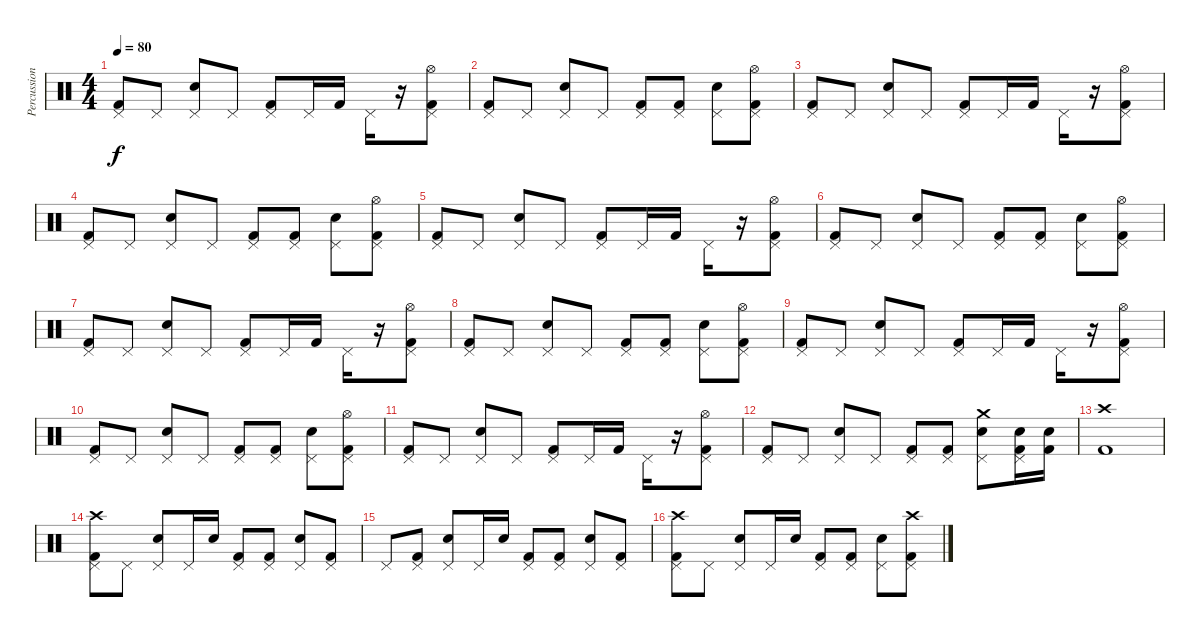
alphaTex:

\track ("Percussion" "Percussion") {instrument percussion}
\staff {score}
\articulation defaults
\ts (4 4)
\tempo 80
\clef neutral
\ks c
("Pedal Hi-Hat (hit)" "Kick (hit) 2").8{dy f} "Pedal Hi-Hat (hit)".8 ("Pedal Hi-Hat (hit)" "Electric Snare (hit)").8 "Pedal Hi-Hat (hit)".8 ("Pedal Hi-Hat (hit)" "Kick (hit) 2").8 "Pedal Hi-Hat (hit)".16 "Kick (hit) 2".16 "Pedal Hi-Hat (hit)".16 r.16 ("Pedal Hi-Hat (hit)" "Hi-Hat (open)" "Kick (hit) 2").8 |
("Pedal Hi-Hat (hit)" "Kick (hit) 2").8 "Pedal Hi-Hat (hit)".8 ("Pedal Hi-Hat (hit)" "Electric Snare (hit)").8 "Pedal Hi-Hat (hit)".8 ("Pedal Hi-Hat (hit)" "Kick (hit) 2").8 ("Pedal Hi-Hat (hit)" "Kick (hit) 2").8 ("Pedal Hi-Hat (hit)" "Electric Snare (hit)").8 ("Pedal Hi-Hat (hit)" "Hi-Hat (open)" "Kick (hit) 2").8 |
("Pedal Hi-Hat (hit)" "Kick (hit) 2").8 "Pedal Hi-Hat (hit)".8 ("Pedal Hi-Hat (hit)" "Electric Snare (hit)").8 "Pedal Hi-Hat (hit)".8 ("Pedal Hi-Hat (hit)" "Kick (hit) 2").8 "Pedal Hi-Hat (hit)".16 "Kick (hit) 2".16 "Pedal Hi-Hat (hit)".16 r.16 ("Pedal Hi-Hat (hit)" "Hi-Hat (open)" "Kick (hit) 2").8 |
("Pedal Hi-Hat (hit)" "Kick (hit) 2").8 "Pedal Hi-Hat (hit)".8 ("Pedal Hi-Hat (hit)" "Electric Snare (hit)").8 "Pedal Hi-Hat (hit)".8 ("Pedal Hi-Hat (hit)" "Kick (hit) 2").8 ("Pedal Hi-Hat (hit)" "Kick (hit) 2").8 ("Pedal Hi-Hat (hit)" "Electric Snare (hit)").8 ("Pedal Hi-Hat (hit)" "Hi-Hat (open)" "Kick (hit) 2").8 |
("Pedal Hi-Hat (hit)" "Kick (hit) 2").8 "Pedal Hi-Hat (hit)".8 ("Pedal Hi-Hat (hit)" "Electric Snare (hit)").8 "Pedal Hi-Hat (hit)".8 ("Pedal Hi-Hat (hit)" "Kick (hit) 2").8 "Pedal Hi-Hat (hit)".16 "Kick (hit) 2".16 "Pedal Hi-Hat (hit)".16 r.16 ("Pedal Hi-Hat (hit)" "Hi-Hat (open)" "Kick (hit) 2").8 |
("Pedal Hi-Hat (hit)" "Kick (hit) 2").8 "Pedal Hi-Hat (hit)".8 ("Pedal Hi-Hat (hit)" "Electric Snare (hit)").8 "Pedal Hi-Hat (hit)".8 ("Pedal Hi-Hat (hit)" "Kick (hit) 2").8 ("Pedal Hi-Hat (hit)" "Kick (hit) 2").8 ("Pedal Hi-Hat (hit)" "Electric Snare (hit)").8 ("Pedal Hi-Hat (hit)" "Hi-Hat (open)" "Kick (hit) 2").8 |
("Pedal Hi-Hat (hit)" "Kick (hit) 2").8 "Pedal Hi-Hat (hit)".8 ("Pedal Hi-Hat (hit)" "Electric Snare (hit)").8 "Pedal Hi-Hat (hit)".8 ("Pedal Hi-Hat (hit)" "Kick (hit) 2").8 "Pedal Hi-Hat (hit)".16 "Kick (hit) 2".16 "Pedal Hi-Hat (hit)".16 r.16 ("Pedal Hi-Hat (hit)" "Hi-Hat (open)" "Kick (hit) 2").8 |
("Pedal Hi-Hat (hit)" "Kick (hit) 2").8 "Pedal Hi-Hat (hit)".8 ("Pedal Hi-Hat (hit)" "Electric Snare (hit)").8 "Pedal Hi-Hat (hit)".8 ("Pedal Hi-Hat (hit)" "Kick (hit) 2").8 ("Pedal Hi-Hat (hit)" "Kick (hit) 2").8 ("Pedal Hi-Hat (hit)" "Electric Snare (hit)").8 ("Pedal Hi-Hat (hit)" "Hi-Hat (open)" "Kick (hit) 2").8 |
("Pedal Hi-Hat (hit)" "Kick (hit) 2").8 "Pedal Hi-Hat (hit)".8 ("Pedal Hi-Hat (hit)" "Electric Snare (hit)").8 "Pedal Hi-Hat (hit)".8 ("Pedal Hi-Hat (hit)" "Kick (hit) 2").8 "Pedal Hi-Hat (hit)".16 "Kick (hit) 2".16 "Pedal Hi-Hat (hit)".16 r.16 ("Pedal Hi-Hat (hit)" "Hi-Hat (open)" "Kick (hit) 2").8 |
("Pedal Hi-Hat (hit)" "Kick (hit) 2").8 "Pedal Hi-Hat (hit)".8 ("Pedal Hi-Hat (hit)" "Electric Snare (hit)").8 "Pedal Hi-Hat (hit)".8 ("Pedal Hi-Hat (hit)" "Kick (hit) 2").8 ("Pedal Hi-Hat (hit)" "Kick (hit) 2").8 ("Pedal Hi-Hat (hit)" "Electric Snare (hit)").8 ("Pedal Hi-Hat (hit)" "Hi-Hat (open)" "Kick (hit) 2").8 |
("Pedal Hi-Hat (hit)" "Kick (hit) 2").8 "Pedal Hi-Hat (hit)".8 ("Pedal Hi-Hat (hit)" "Electric Snare (hit)").8 "Pedal Hi-Hat (hit)".8 ("Pedal Hi-Hat (hit)" "Kick (hit) 2").8 "Pedal Hi-Hat (hit)".16 "Kick (hit) 2".16 "Pedal Hi-Hat (hit)".16 r.16 ("Pedal Hi-Hat (hit)" "Hi-Hat (open)" "Kick (hit) 2").8 |
("Pedal Hi-Hat (hit)" "Kick (hit) 2").8 "Pedal Hi-Hat (hit)".8 ("Pedal Hi-Hat (hit)" "Electric Snare (hit)").8 "Pedal Hi-Hat (hit)".8 ("Pedal Hi-Hat (hit)" "Kick (hit) 2").8 ("Pedal Hi-Hat (hit)" "Kick (hit) 2").8 ("Pedal Hi-Hat (hit)" "Crash medium (hit)" "Electric Snare (hit)").8 ("Pedal Hi-Hat (hit)" "Electric Snare (hit)" "Kick (hit) 2").16 ("Electric Snare (hit)" "Kick (hit) 2").16 |
("Crash high (hit)" "Kick (hit) 2").1 |
("Pedal Hi-Hat (hit)" "Crash high (hit)" "Kick (hit) 2").8 "Pedal Hi-Hat (hit)".8 ("Pedal Hi-Hat (hit)" "Electric Snare (hit)").8 "Pedal Hi-Hat (hit)".16 "Electric Snare (hit)".16 ("Pedal Hi-Hat (hit)" "Kick (hit) 2").8 ("Pedal Hi-Hat (hit)" "Kick (hit) 2").8 ("Pedal Hi-Hat (hit)" "Electric Snare (hit)").8 ("Pedal Hi-Hat (hit)" "Kick (hit) 2").8 |
"Pedal Hi-Hat (hit)".8 ("Pedal Hi-Hat (hit)" "Kick (hit) 2").8 ("Pedal Hi-Hat (hit)" "Electric Snare (hit)").8 "Pedal Hi-Hat (hit)".16 "Electric Snare (hit)".16 ("Pedal Hi-Hat (hit)" "Kick (hit) 2").8 ("Pedal Hi-Hat (hit)" "Kick (hit) 2").8 ("Pedal Hi-Hat (hit)" "Electric Snare (hit)").8 ("Pedal Hi-Hat (hit)" "Kick (hit) 2").8 |
("Pedal Hi-Hat (hit)" "Crash high (hit)" "Kick (hit) 2").8 "Pedal Hi-Hat (hit)".8 ("Pedal Hi-Hat (hit)" "Electric Snare (hit)").8 "Pedal Hi-Hat (hit)".16 "Electric Snare (hit)".16 ("Pedal Hi-Hat (hit)" "Kick (hit) 2").8 ("Pedal Hi-Hat (hit)" "Kick (hit) 2").8 ("Pedal Hi-Hat (hit)" "Electric Snare (hit)").8 ("Pedal Hi-Hat (hit)" "Crash high (hit)" "Kick (hit) 2").8
